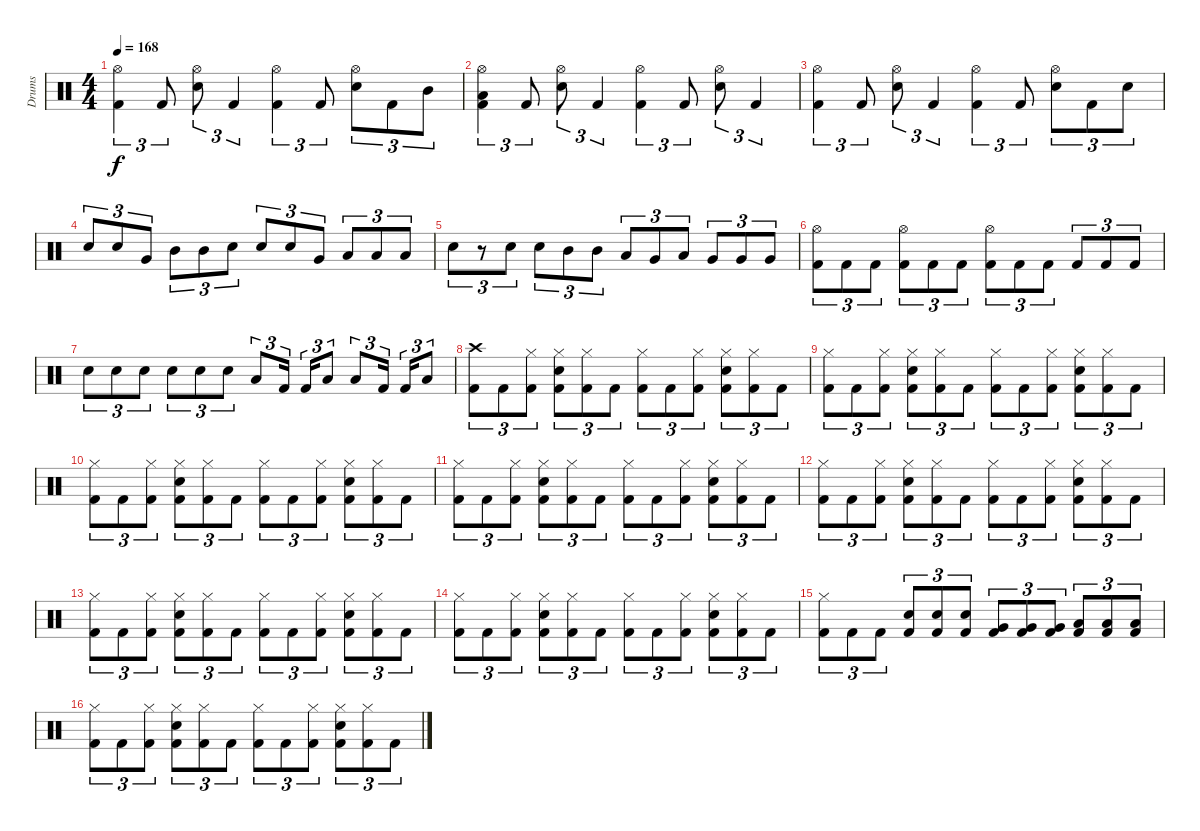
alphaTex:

\track ("Drums" "Drums") {instrument percussion}
\staff {score}
\articulation defaults
\ts (4 4)
\tempo 168
\clef neutral
\ks c
("Hi-Hat (open)" "Kick (hit) 2").4{tu (3 2) dy f} "Kick (hit) 2".8{tu (3 2)} ("Hi-Hat (open)" "Electric Snare (hit)").8{tu (3 2)} "Kick (hit) 2".4{tu (3 2)} ("Hi-Hat (open)" "Kick (hit) 2").4{tu (3 2)} "Kick (hit) 2".8{tu (3 2)} ("Hi-Hat (open)" "Electric Snare (hit)").8{tu (3 2)} "Kick (hit) 2".8{tu (3 2)} "Mid Tom (hit)".8{tu (3 2)} |
("Hi-Hat (open)" "Low Tom (hit)" "Kick (hit) 2").4{tu (3 2)} "Kick (hit) 2".8{tu (3 2)} ("Hi-Hat (open)" "Electric Snare (hit)").8{tu (3 2)} "Kick (hit) 2".4{tu (3 2)} ("Hi-Hat (open)" "Kick (hit) 2").4{tu (3 2)} "Kick (hit) 2".8{tu (3 2)} ("Hi-Hat (open)" "Electric Snare (hit)").8{tu (3 2)} "Kick (hit) 2".4{tu (3 2)} |
("Hi-Hat (open)" "Kick (hit) 2").4{tu (3 2)} "Kick (hit) 2".8{tu (3 2)} ("Hi-Hat (open)" "Electric Snare (hit)").8{tu (3 2)} "Kick (hit) 2".4{tu (3 2)} ("Hi-Hat (open)" "Kick (hit) 2").4{tu (3 2)} "Kick (hit) 2".8{tu (3 2)} ("Hi-Hat (open)" "Electric Snare (hit)").8{tu (3 2)} "Kick (hit) 2".8{tu (3 2)} "Electric Snare (hit)".8{tu (3 2)} |
"Electric Snare (hit)".8{tu (3 2)} "Electric Snare (hit)".8{tu (3 2)} "Very Low Tom (hit)".8{tu (3 2)} "Mid Tom (hit)".8{tu (3 2)} "Mid Tom (hit)".8{tu (3 2)} "Electric Snare (hit)".8{tu (3 2)} "Electric Snare (hit)".8{tu (3 2)} "Electric Snare (hit)".8{tu (3 2)} "Very Low Tom (hit)".8{tu (3 2)} "Low Tom (hit)".8{tu (3 2)} "Low Tom (hit)".8{tu (3 2)} "Low Tom (hit)".8{tu (3 2)} |
"Electric Snare (hit)".8{tu (3 2)} r.8{tu (3 2)} "Electric Snare (hit)".8{tu (3 2)} "Electric Snare (hit)".8{tu (3 2)} "Mid Tom (hit)".8{tu (3 2)} "Mid Tom (hit)".8{tu (3 2)} "Low Tom (hit)".8{tu (3 2)} "Very Low Tom (hit)".8{tu (3 2)} "Low Floor Tom (hit)".8{tu (3 2)} "Very Low Tom (hit)".8{tu (3 2)} "Very Low Tom (hit)".8{tu (3 2)} "Very Low Tom (hit)".8{tu (3 2)} |
("Hi-Hat (open)" "Kick (hit) 2").8{tu (3 2)} "Kick (hit) 2".8{tu (3 2)} "Kick (hit) 2".8{tu (3 2)} ("Hi-Hat (open)" "Kick (hit) 2").8{tu (3 2)} "Kick (hit) 2".8{tu (3 2)} "Kick (hit) 2".8{tu (3 2)} ("Hi-Hat (open)" "Kick (hit) 2").8{tu (3 2)} "Kick (hit) 2".8{tu (3 2)} "Kick (hit) 2".8{tu (3 2)} "Kick (hit) 2".8{tu (3 2)} "Kick (hit) 2".8{tu (3 2)} "Kick (hit) 2".8{tu (3 2)} |
"Electric Snare (hit)".8{tu (3 2)} "Electric Snare (hit)".8{tu (3 2)} "Electric Snare (hit)".8{tu (3 2)} "Electric Snare (hit)".8{tu (3 2)} "Electric Snare (hit)".8{tu (3 2)} "Electric Snare (hit)".8{tu (3 2)} "Low Tom (hit)".8{tu (3 2)} "Kick (hit) 2".16{tu (3 2)} "Kick (hit) 2".16{tu (3 2)} "Low Floor Tom (hit)".8{tu (3 2)} "Low Tom (hit)".8{tu (3 2)} "Kick (hit) 2".16{tu (3 2)} "Kick (hit) 2".16{tu (3 2)} "Low Floor Tom (hit)".8{tu (3 2)} |
("Crash high (hit)" "Kick (hit) 2").8{tu (3 2)} "Kick (hit) 2".8{tu (3 2)} ("Hi-Hat (closed)" "Kick (hit) 2").8{tu (3 2)} ("Hi-Hat (closed)" "Electric Snare (hit)" "Kick (hit) 2").8{tu (3 2)} ("Hi-Hat (closed)" "Kick (hit) 2").8{tu (3 2)} "Kick (hit) 2".8{tu (3 2)} ("Hi-Hat (closed)" "Kick (hit) 2").8{tu (3 2)} "Kick (hit) 2".8{tu (3 2)} ("Hi-Hat (closed)" "Kick (hit) 2").8{tu (3 2)} ("Hi-Hat (closed)" "Electric Snare (hit)" "Kick (hit) 2").8{tu (3 2)} ("Hi-Hat (closed)" "Kick (hit) 2").8{tu (3 2)} "Kick (hit) 2".8{tu (3 2)} |
("Hi-Hat (closed)" "Kick (hit) 2").8{tu (3 2)} "Kick (hit) 2".8{tu (3 2)} ("Hi-Hat (closed)" "Kick (hit) 2").8{tu (3 2)} ("Hi-Hat (closed)" "Electric Snare (hit)" "Kick (hit) 2").8{tu (3 2)} ("Hi-Hat (closed)" "Kick (hit) 2").8{tu (3 2)} "Kick (hit) 2".8{tu (3 2)} ("Hi-Hat (closed)" "Kick (hit) 2").8{tu (3 2)} "Kick (hit) 2".8{tu (3 2)} ("Hi-Hat (closed)" "Kick (hit) 2").8{tu (3 2)} ("Hi-Hat (closed)" "Electric Snare (hit)" "Kick (hit) 2").8{tu (3 2)} ("Hi-Hat (closed)" "Kick (hit) 2").8{tu (3 2)} "Kick (hit) 2".8{tu (3 2)} |
("Hi-Hat (closed)" "Kick (hit) 2").8{tu (3 2)} "Kick (hit) 2".8{tu (3 2)} ("Hi-Hat (closed)" "Kick (hit) 2").8{tu (3 2)} ("Hi-Hat (closed)" "Electric Snare (hit)" "Kick (hit) 2").8{tu (3 2)} ("Hi-Hat (closed)" "Kick (hit) 2").8{tu (3 2)} "Kick (hit) 2".8{tu (3 2)} ("Hi-Hat (closed)" "Kick (hit) 2").8{tu (3 2)} "Kick (hit) 2".8{tu (3 2)} ("Hi-Hat (closed)" "Kick (hit) 2").8{tu (3 2)} ("Hi-Hat (closed)" "Electric Snare (hit)" "Kick (hit) 2").8{tu (3 2)} ("Hi-Hat (closed)" "Kick (hit) 2").8{tu (3 2)} "Kick (hit) 2".8{tu (3 2)} |
("Hi-Hat (closed)" "Kick (hit) 2").8{tu (3 2)} "Kick (hit) 2".8{tu (3 2)} ("Hi-Hat (closed)" "Kick (hit) 2").8{tu (3 2)} ("Hi-Hat (closed)" "Electric Snare (hit)" "Kick (hit) 2").8{tu (3 2)} ("Hi-Hat (closed)" "Kick (hit) 2").8{tu (3 2)} "Kick (hit) 2".8{tu (3 2)} ("Hi-Hat (closed)" "Kick (hit) 2").8{tu (3 2)} "Kick (hit) 2".8{tu (3 2)} ("Hi-Hat (closed)" "Kick (hit) 2").8{tu (3 2)} ("Hi-Hat (closed)" "Electric Snare (hit)" "Kick (hit) 2").8{tu (3 2)} ("Hi-Hat (closed)" "Kick (hit) 2").8{tu (3 2)} "Kick (hit) 2".8{tu (3 2)} |
("Hi-Hat (closed)" "Kick (hit) 2").8{tu (3 2)} "Kick (hit) 2".8{tu (3 2)} ("Hi-Hat (closed)" "Kick (hit) 2").8{tu (3 2)} ("Hi-Hat (closed)" "Electric Snare (hit)" "Kick (hit) 2").8{tu (3 2)} ("Hi-Hat (closed)" "Kick (hit) 2").8{tu (3 2)} "Kick (hit) 2".8{tu (3 2)} ("Hi-Hat (closed)" "Kick (hit) 2").8{tu (3 2)} "Kick (hit) 2".8{tu (3 2)} ("Hi-Hat (closed)" "Kick (hit) 2").8{tu (3 2)} ("Hi-Hat (closed)" "Electric Snare (hit)" "Kick (hit) 2").8{tu (3 2)} ("Hi-Hat (closed)" "Kick (hit) 2").8{tu (3 2)} "Kick (hit) 2".8{tu (3 2)} |
("Hi-Hat (closed)" "Kick (hit) 2").8{tu (3 2)} "Kick (hit) 2".8{tu (3 2)} ("Hi-Hat (closed)" "Kick (hit) 2").8{tu (3 2)} ("Hi-Hat (closed)" "Electric Snare (hit)" "Kick (hit) 2").8{tu (3 2)} ("Hi-Hat (closed)" "Kick (hit) 2").8{tu (3 2)} "Kick (hit) 2".8{tu (3 2)} ("Hi-Hat (closed)" "Kick (hit) 2").8{tu (3 2)} "Kick (hit) 2".8{tu (3 2)} ("Hi-Hat (closed)" "Kick (hit) 2").8{tu (3 2)} ("Hi-Hat (closed)" "Electric Snare (hit)" "Kick (hit) 2").8{tu (3 2)} ("Hi-Hat (closed)" "Kick (hit) 2").8{tu (3 2)} "Kick (hit) 2".8{tu (3 2)} |
("Hi-Hat (closed)" "Kick (hit) 2").8{tu (3 2)} "Kick (hit) 2".8{tu (3 2)} ("Hi-Hat (closed)" "Kick (hit) 2").8{tu (3 2)} ("Hi-Hat (closed)" "Electric Snare (hit)" "Kick (hit) 2").8{tu (3 2)} ("Hi-Hat (closed)" "Kick (hit) 2").8{tu (3 2)} "Kick (hit) 2".8{tu (3 2)} ("Hi-Hat (closed)" "Kick (hit) 2").8{tu (3 2)} "Kick (hit) 2".8{tu (3 2)} ("Hi-Hat (closed)" "Kick (hit) 2").8{tu (3 2)} ("Hi-Hat (closed)" "Electric Snare (hit)" "Kick (hit) 2").8{tu (3 2)} ("Hi-Hat (closed)" "Kick (hit) 2").8{tu (3 2)} "Kick (hit) 2".8{tu (3 2)} |
("Hi-Hat (closed)" "Kick (hit) 2").8{tu (3 2)} "Kick (hit) 2".8{tu (3 2)} "Kick (hit) 2".8{tu (3 2)} ("Electric Snare (hit)" "Kick (hit) 2").8{tu (3 2)} ("Electric Snare (hit)" "Kick (hit) 2").8{tu (3 2)} ("Electric Snare (hit)" "Kick (hit) 2").8{tu (3 2)} ("Very Low Tom (hit)" "Kick (hit) 2").8{tu (3 2)} ("Very Low Tom (hit)" "Kick (hit) 2").8{tu (3 2)} ("Very Low Tom (hit)" "Kick (hit) 2").8{tu (3 2)} ("Low Floor Tom (hit)" "Kick (hit) 2").8{tu (3 2)} ("Low Floor Tom (hit)" "Kick (hit) 2").8{tu (3 2)} ("Low Floor Tom (hit)" "Kick (hit) 2").8{tu (3 2)} |
("Hi-Hat (closed)" "Kick (hit) 2").8{tu (3 2)} "Kick (hit) 2".8{tu (3 2)} ("Hi-Hat (closed)" "Kick (hit) 2").8{tu (3 2)} ("Hi-Hat (closed)" "Electric Snare (hit)" "Kick (hit) 2").8{tu (3 2)} ("Hi-Hat (closed)" "Kick (hit) 2").8{tu (3 2)} "Kick (hit) 2".8{tu (3 2)} ("Hi-Hat (closed)" "Kick (hit) 2").8{tu (3 2)} "Kick (hit) 2".8{tu (3 2)} ("Hi-Hat (closed)" "Kick (hit) 2").8{tu (3 2)} ("Hi-Hat (closed)" "Electric Snare (hit)" "Kick (hit) 2").8{tu (3 2)} ("Hi-Hat (closed)" "Kick (hit) 2").8{tu (3 2)} "Kick (hit) 2".8{tu (3 2)}
